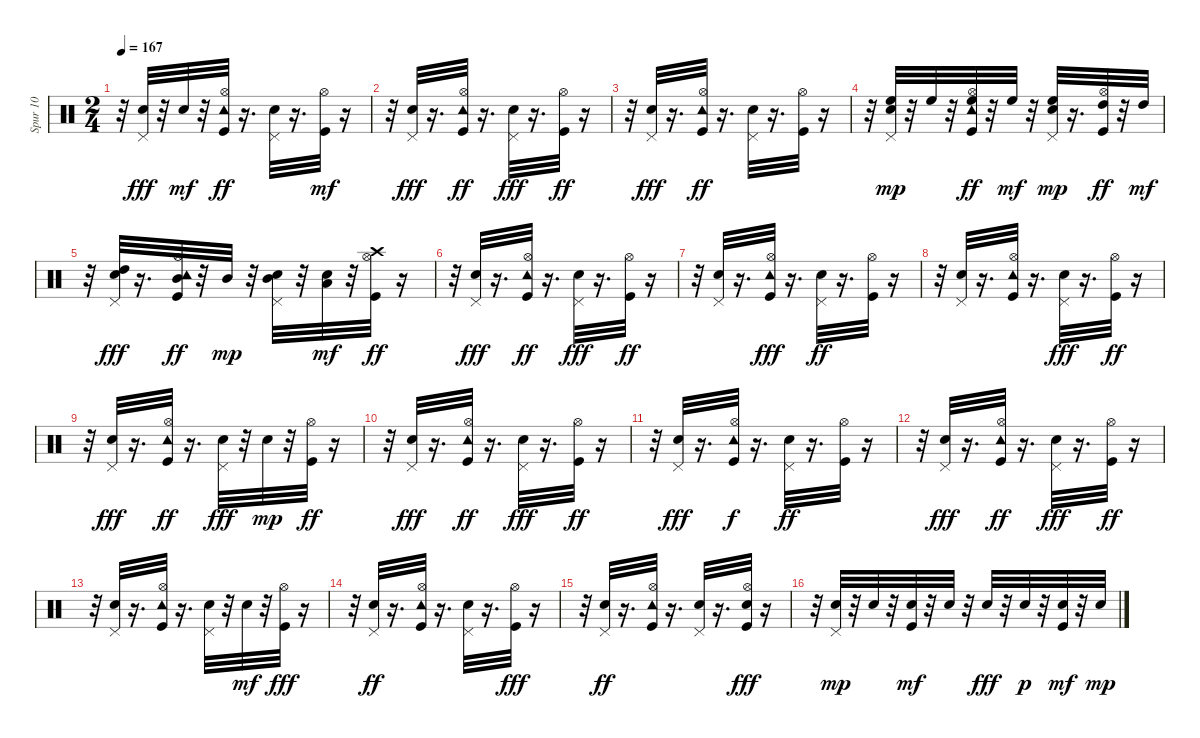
\track ("Spur 10" "Spur 10") {instrument percussion}
\staff {score}
\articulation defaults
\ts (2 4)
\tempo 167
\clef neutral
\ks c
r.32{dy fff} ("Pedal Hi-Hat (hit)" "Snare (hit) 2").32 r.32 "Snare (hit) 2".32{dy mf} r.32 ("Kick (hit)" "Hi-Hat (open)" "Tambourine (hit)").32{dy ff} r.16{d} ("Pedal Hi-Hat (hit)" "Snare (hit) 2").32 r.16{d} ("Kick (hit)" "Hi-Hat (open)").32{dy mf} r.16 |
r.32 ("Pedal Hi-Hat (hit)" "Snare (hit) 2").32{dy fff} r.16{d} ("Hi-Hat (open)" "Kick (hit)" "Tambourine (hit)").32{dy ff} r.16{d} ("Snare (hit) 2" "Pedal Hi-Hat (hit)").32{dy fff} r.16{d} ("Hi-Hat (open)" "Kick (hit)").32{dy ff} r.16 |
r.32 ("Snare (hit) 2" "Pedal Hi-Hat (hit)").32{dy fff} r.16{d} ("Kick (hit)" "Tambourine (hit)" "Hi-Hat (open)").32{dy ff} r.16{d} ("Pedal Hi-Hat (hit)" "Snare (hit) 2").32 r.16{d} ("Kick (hit)" "Hi-Hat (open)").32 r.16 |
r.32 ("Pedal Hi-Hat (hit)" "High Floor Tom (hit)" "Snare (hit) 2").32{dy mp} r.32 "High Floor Tom (hit)".32 r.32 ("High Floor Tom (hit)" "Hi-Hat (open)" "Kick (hit)" "Tambourine (hit)").32{dy ff} r.32 "High Floor Tom (hit)".32{dy mf} r.32 ("Snare (hit) 2" "Pedal Hi-Hat (hit)" "High Floor Tom (hit)").32{dy mp} r.16{d} ("High Tom (hit)" "Kick (hit)" "Hi-Hat (open)").32{dy ff} r.32 "High Tom (hit)".32{dy mf} |
r.32 ("High Tom (hit)" "Snare (hit) 2" "Pedal Hi-Hat (hit)").32{dy fff} r.16{d} ("Mid Tom (hit)" "Kick (hit)" "Tambourine (hit)" "Hi-Hat (open)").32{dy ff} r.32 "Mid Tom (hit)".32{dy mp} r.32 ("Snare (hit) 2" "Pedal Hi-Hat (hit)" "Mid Tom (hit)").32 r.32 ("Low Tom (hit)" "Snare (hit) 2").32{dy mf} r.32 ("Hi-Hat (open)" "Crash high (hit)" "Kick (hit)").32{dy ff} r.16 |
r.32 ("Snare (hit) 2" "Pedal Hi-Hat (hit)").32{dy fff} r.16{d} ("Hi-Hat (open)" "Tambourine (hit)" "Kick (hit)").32{dy ff} r.16{d} ("Snare (hit) 2" "Pedal Hi-Hat (hit)").32{dy fff} r.16{d} ("Kick (hit)" "Hi-Hat (open)").32{dy ff} r.16 |
r.32 ("Pedal Hi-Hat (hit)" "Snare (hit) 2").32 r.16{d} ("Hi-Hat (open)" "Tambourine (hit)" "Kick (hit)").32{dy fff} r.16{d} ("Snare (hit) 2" "Pedal Hi-Hat (hit)").32{dy ff} r.16{d} ("Kick (hit)" "Hi-Hat (open)").32 r.16 |
r.32 ("Snare (hit) 2" "Pedal Hi-Hat (hit)").32 r.16{d} ("Hi-Hat (open)" "Tambourine (hit)" "Kick (hit)").32 r.16{d} ("Snare (hit) 2" "Pedal Hi-Hat (hit)").32{dy fff} r.16{d} ("Kick (hit)" "Hi-Hat (open)").32{dy ff} r.16 |
r.32 ("Pedal Hi-Hat (hit)" "Snare (hit) 2").32{dy fff} r.16{d} ("Kick (hit)" "Hi-Hat (open)" "Tambourine (hit)").32{dy ff} r.16{d} ("Pedal Hi-Hat (hit)" "Snare (hit) 2").32{dy fff} r.32 "Snare (hit) 2".32{dy mp} r.32 ("Hi-Hat (open)" "Kick (hit)").32{dy ff} r.16 |
r.32 ("Snare (hit) 2" "Pedal Hi-Hat (hit)").32{dy fff} r.16{d} ("Tambourine (hit)" "Kick (hit)" "Hi-Hat (open)").32{dy ff} r.16{d} ("Pedal Hi-Hat (hit)" "Snare (hit) 2").32{dy fff} r.16{d} ("Kick (hit)" "Hi-Hat (open)").32{dy ff} r.16 |
r.32 ("Snare (hit) 2" "Pedal Hi-Hat (hit)").32{dy fff} r.16{d} ("Hi-Hat (open)" "Kick (hit)" "Tambourine (hit)").32{dy f} r.16{d} ("Snare (hit) 2" "Pedal Hi-Hat (hit)").32{dy ff} r.16{d} ("Kick (hit)" "Hi-Hat (open)").32 r.16 |
r.32 ("Snare (hit) 2" "Pedal Hi-Hat (hit)").32{dy fff} r.16{d} ("Kick (hit)" "Hi-Hat (open)" "Tambourine (hit)").32{dy ff} r.16{d} ("Pedal Hi-Hat (hit)" "Snare (hit) 2").32{dy fff} r.16{d} ("Hi-Hat (open)" "Kick (hit)").32{dy ff} r.16 |
r.32 ("Snare (hit) 2" "Pedal Hi-Hat (hit)").32 r.16{d} ("Tambourine (hit)" "Kick (hit)" "Hi-Hat (open)").32 r.16{d} ("Pedal Hi-Hat (hit)" "Snare (hit) 2").32 r.32 "Snare (hit) 2".32{dy mf} r.32 ("Hi-Hat (open)" "Kick (hit)").32{dy fff} r.16 |
r.32 ("Snare (hit) 2" "Pedal Hi-Hat (hit)").32{dy ff} r.16{d} ("Tambourine (hit)" "Kick (hit)" "Hi-Hat (open)").32 r.16{d} ("Pedal Hi-Hat (hit)" "Snare (hit) 2").32 r.16{d} ("Hi-Hat (open)" "Kick (hit)").32{dy fff} r.16 |
r.32 ("Snare (hit) 2" "Pedal Hi-Hat (hit)").32{dy ff} r.16{d} ("Hi-Hat (open)" "Kick (hit)" "Tambourine (hit)").32 r.16{d} ("Snare (hit) 2" "Pedal Hi-Hat (hit)").32 r.16{d} ("Electric Snare (hit)" "Kick (hit)" "Hi-Hat (open)").32{dy fff} r.16 |
r.32 ("Pedal Hi-Hat (hit)" "Snare (hit) 2").32{dy mp} r.32 "Snare (hit) 2".32 r.32 ("Kick (hit)" "Snare (hit) 2").32{dy mf} r.32 "Snare (hit) 2".32 r.32 "Electric Snare (hit)".32{dy fff} r.32 "Snare (hit) 2".32{dy p} r.32 ("Kick (hit)" "Snare (hit) 2").32{dy mf} r.32 "Snare (hit) 2".32{dy mp}
